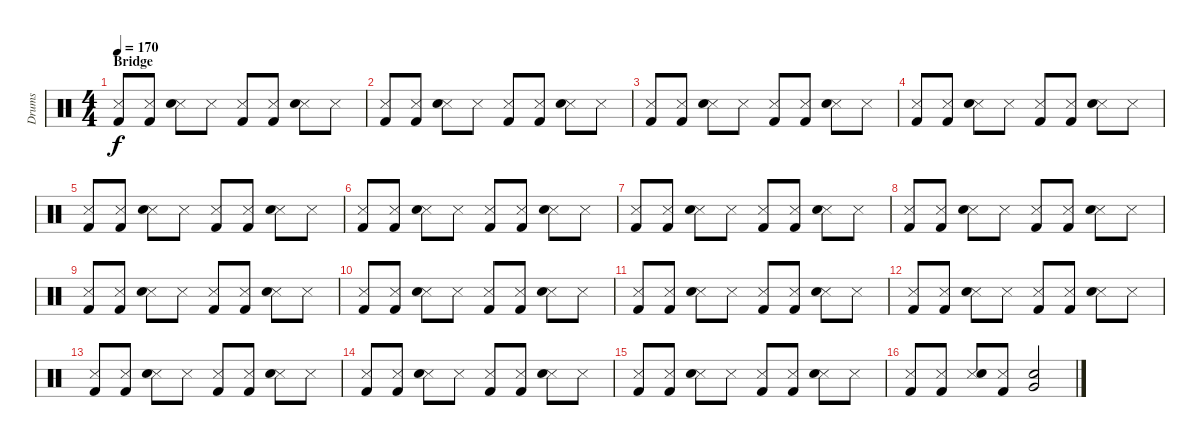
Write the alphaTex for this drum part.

\track ("Drums" "Drums") {instrument percussion}
\staff {score}
\articulation defaults
\ts (4 4)
\section ("" "Bridge")
\tempo 170
\clef neutral
\ks c
("Metronome (hit)" "Kick (hit) 2").8{dy f} ("Metronome (hit)" "Kick (hit) 2").8 ("Metronome (hit)" "Electric Snare (hit)").8 "Metronome (hit)".8 ("Metronome (hit)" "Kick (hit) 2").8 ("Metronome (hit)" "Kick (hit) 2").8 ("Metronome (hit)" "Electric Snare (hit)").8 "Metronome (hit)".8 |
("Metronome (hit)" "Kick (hit) 2").8 ("Metronome (hit)" "Kick (hit) 2").8 ("Metronome (hit)" "Electric Snare (hit)").8 "Metronome (hit)".8 ("Metronome (hit)" "Kick (hit) 2").8 ("Metronome (hit)" "Kick (hit) 2").8 ("Metronome (hit)" "Electric Snare (hit)").8 "Metronome (hit)".8 |
("Metronome (hit)" "Kick (hit) 2").8 ("Metronome (hit)" "Kick (hit) 2").8 ("Metronome (hit)" "Electric Snare (hit)").8 "Metronome (hit)".8 ("Metronome (hit)" "Kick (hit) 2").8 ("Metronome (hit)" "Kick (hit) 2").8 ("Metronome (hit)" "Electric Snare (hit)").8 "Metronome (hit)".8 |
("Metronome (hit)" "Kick (hit) 2").8 ("Metronome (hit)" "Kick (hit) 2").8 ("Metronome (hit)" "Electric Snare (hit)").8 "Metronome (hit)".8 ("Metronome (hit)" "Kick (hit) 2").8 ("Metronome (hit)" "Kick (hit) 2").8 ("Metronome (hit)" "Electric Snare (hit)").8 "Metronome (hit)".8 |
("Metronome (hit)" "Kick (hit) 2").8 ("Metronome (hit)" "Kick (hit) 2").8 ("Metronome (hit)" "Electric Snare (hit)").8 "Metronome (hit)".8 ("Metronome (hit)" "Kick (hit) 2").8 ("Metronome (hit)" "Kick (hit) 2").8 ("Metronome (hit)" "Electric Snare (hit)").8 "Metronome (hit)".8 |
("Metronome (hit)" "Kick (hit) 2").8 ("Metronome (hit)" "Kick (hit) 2").8 ("Metronome (hit)" "Electric Snare (hit)").8 "Metronome (hit)".8 ("Metronome (hit)" "Kick (hit) 2").8 ("Metronome (hit)" "Kick (hit) 2").8 ("Metronome (hit)" "Electric Snare (hit)").8 "Metronome (hit)".8 |
("Metronome (hit)" "Kick (hit) 2").8 ("Metronome (hit)" "Kick (hit) 2").8 ("Metronome (hit)" "Electric Snare (hit)").8 "Metronome (hit)".8 ("Metronome (hit)" "Kick (hit) 2").8 ("Metronome (hit)" "Kick (hit) 2").8 ("Metronome (hit)" "Electric Snare (hit)").8 "Metronome (hit)".8 |
("Metronome (hit)" "Kick (hit) 2").8 ("Metronome (hit)" "Kick (hit) 2").8 ("Metronome (hit)" "Electric Snare (hit)").8 "Metronome (hit)".8 ("Metronome (hit)" "Kick (hit) 2").8 ("Metronome (hit)" "Kick (hit) 2").8 ("Metronome (hit)" "Electric Snare (hit)").8 "Metronome (hit)".8 |
("Metronome (hit)" "Kick (hit) 2").8 ("Metronome (hit)" "Kick (hit) 2").8 ("Metronome (hit)" "Electric Snare (hit)").8 "Metronome (hit)".8 ("Metronome (hit)" "Kick (hit) 2").8 ("Metronome (hit)" "Kick (hit) 2").8 ("Metronome (hit)" "Electric Snare (hit)").8 "Metronome (hit)".8 |
("Metronome (hit)" "Kick (hit) 2").8 ("Metronome (hit)" "Kick (hit) 2").8 ("Metronome (hit)" "Electric Snare (hit)").8 "Metronome (hit)".8 ("Metronome (hit)" "Kick (hit) 2").8 ("Metronome (hit)" "Kick (hit) 2").8 ("Metronome (hit)" "Electric Snare (hit)").8 "Metronome (hit)".8 |
("Metronome (hit)" "Kick (hit) 2").8 ("Metronome (hit)" "Kick (hit) 2").8 ("Metronome (hit)" "Electric Snare (hit)").8 "Metronome (hit)".8 ("Metronome (hit)" "Kick (hit) 2").8 ("Metronome (hit)" "Kick (hit) 2").8 ("Metronome (hit)" "Electric Snare (hit)").8 "Metronome (hit)".8 |
("Metronome (hit)" "Kick (hit) 2").8 ("Metronome (hit)" "Kick (hit) 2").8 ("Metronome (hit)" "Electric Snare (hit)").8 "Metronome (hit)".8 ("Metronome (hit)" "Kick (hit) 2").8 ("Metronome (hit)" "Kick (hit) 2").8 ("Metronome (hit)" "Electric Snare (hit)").8 "Metronome (hit)".8 |
("Metronome (hit)" "Kick (hit) 2").8 ("Metronome (hit)" "Kick (hit) 2").8 ("Metronome (hit)" "Electric Snare (hit)").8 "Metronome (hit)".8 ("Metronome (hit)" "Kick (hit) 2").8 ("Metronome (hit)" "Kick (hit) 2").8 ("Metronome (hit)" "Electric Snare (hit)").8 "Metronome (hit)".8 |
("Metronome (hit)" "Kick (hit) 2").8 ("Metronome (hit)" "Kick (hit) 2").8 ("Metronome (hit)" "Electric Snare (hit)").8 "Metronome (hit)".8 ("Metronome (hit)" "Kick (hit) 2").8 ("Metronome (hit)" "Kick (hit) 2").8 ("Metronome (hit)" "Electric Snare (hit)").8 "Metronome (hit)".8 |
("Metronome (hit)" "Kick (hit) 2").8 ("Metronome (hit)" "Kick (hit) 2").8 ("Metronome (hit)" "Electric Snare (hit)").8 "Metronome (hit)".8 ("Metronome (hit)" "Kick (hit) 2").8 ("Metronome (hit)" "Kick (hit) 2").8 ("Metronome (hit)" "Electric Snare (hit)").8 "Metronome (hit)".8 |
("Metronome (hit)" "Kick (hit) 2").8 ("Metronome (hit)" "Kick (hit) 2").8 ("Metronome (hit)" "Electric Snare (hit)").8 ("Metronome (hit)" "Kick (hit) 2").8 ("Very Low Tom (hit)" "Electric Snare (hit)").2
